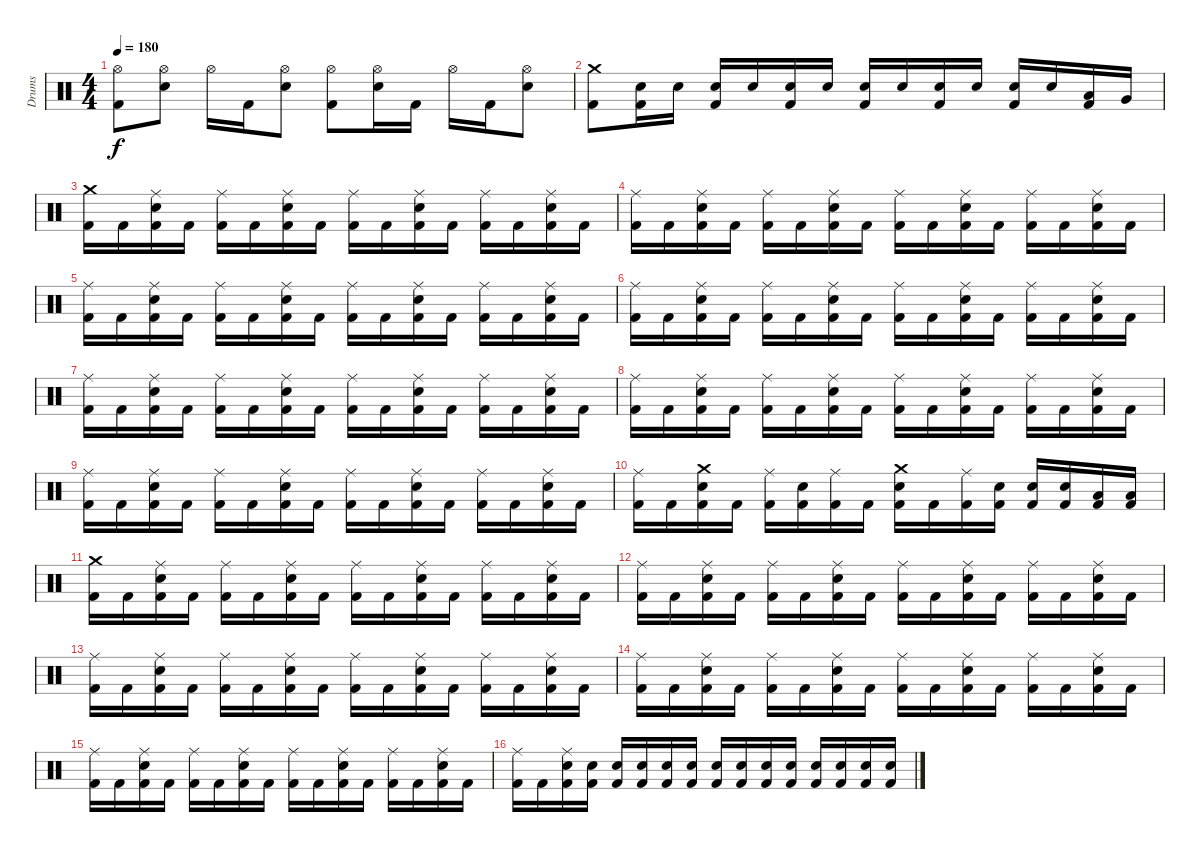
\track ("Drums" "Drums") {instrument percussion}
\staff {score}
\articulation defaults
\ts (4 4)
\tempo 180
\clef neutral
\ks c
("Hi-Hat (open)" "Kick (hit) 2").8{dy f} ("Hi-Hat (open)" "Snare (hit) 2").8 "Hi-Hat (open)".16 "Kick (hit) 2".16 ("Hi-Hat (open)" "Snare (hit) 2").8 ("Hi-Hat (open)" "Kick (hit) 2").8 ("Hi-Hat (open)" "Snare (hit) 2").16 "Kick (hit) 2".16 "Hi-Hat (open)".16 "Kick (hit) 2".16 ("Hi-Hat (open)" "Snare (hit) 2").8 |
("Crash medium (hit)" "Kick (hit) 2").8 ("Snare (hit) 2" "Kick (hit) 2").16 "Snare (hit) 2".16 ("Snare (hit) 2" "Kick (hit) 2").16 "Snare (hit) 2".16 ("Snare (hit) 2" "Kick (hit) 2").16 "Snare (hit) 2".16 ("Snare (hit) 2" "Kick (hit) 2").16 "Snare (hit) 2".16 ("Snare (hit) 2" "Kick (hit) 2").16 "Snare (hit) 2".16 ("Snare (hit) 2" "Kick (hit) 2").16 "Snare (hit) 2".16 ("Low Tom (hit)" "Kick (hit) 2").16 "Very Low Tom (hit)".16 |
("Crash medium (hit)" "Kick (hit) 2").16 "Kick (hit) 2".16 ("Ride (middle)" "Snare (hit) 2" "Kick (hit) 2").16 "Kick (hit) 2".16 ("Ride (middle)" "Kick (hit) 2").16 "Kick (hit) 2".16 ("Ride (middle)" "Snare (hit) 2" "Kick (hit) 2").16 "Kick (hit) 2".16 ("Ride (middle)" "Kick (hit) 2").16 "Kick (hit) 2".16 ("Ride (middle)" "Snare (hit) 2" "Kick (hit) 2").16 "Kick (hit) 2".16 ("Ride (middle)" "Kick (hit) 2").16 "Kick (hit) 2".16 ("Ride (middle)" "Snare (hit) 2" "Kick (hit) 2").16 "Kick (hit) 2".16 |
("Ride (middle)" "Kick (hit) 2").16 "Kick (hit) 2".16 ("Ride (middle)" "Snare (hit) 2" "Kick (hit) 2").16 "Kick (hit) 2".16 ("Ride (middle)" "Kick (hit) 2").16 "Kick (hit) 2".16 ("Ride (middle)" "Snare (hit) 2" "Kick (hit) 2").16 "Kick (hit) 2".16 ("Ride (middle)" "Kick (hit) 2").16 "Kick (hit) 2".16 ("Ride (middle)" "Snare (hit) 2" "Kick (hit) 2").16 "Kick (hit) 2".16 ("Ride (middle)" "Kick (hit) 2").16 "Kick (hit) 2".16 ("Ride (middle)" "Snare (hit) 2" "Kick (hit) 2").16 "Kick (hit) 2".16 |
("Ride (middle)" "Kick (hit) 2").16 "Kick (hit) 2".16 ("Ride (middle)" "Snare (hit) 2" "Kick (hit) 2").16 "Kick (hit) 2".16 ("Ride (middle)" "Kick (hit) 2").16 "Kick (hit) 2".16 ("Ride (middle)" "Snare (hit) 2" "Kick (hit) 2").16 "Kick (hit) 2".16 ("Ride (middle)" "Kick (hit) 2").16 "Kick (hit) 2".16 ("Ride (middle)" "Snare (hit) 2" "Kick (hit) 2").16 "Kick (hit) 2".16 ("Ride (middle)" "Kick (hit) 2").16 "Kick (hit) 2".16 ("Ride (middle)" "Snare (hit) 2" "Kick (hit) 2").16 "Kick (hit) 2".16 |
("Ride (middle)" "Kick (hit) 2").16 "Kick (hit) 2".16 ("Ride (middle)" "Snare (hit) 2" "Kick (hit) 2").16 "Kick (hit) 2".16 ("Ride (middle)" "Kick (hit) 2").16 "Kick (hit) 2".16 ("Ride (middle)" "Snare (hit) 2" "Kick (hit) 2").16 "Kick (hit) 2".16 ("Ride (middle)" "Kick (hit) 2").16 "Kick (hit) 2".16 ("Ride (middle)" "Snare (hit) 2" "Kick (hit) 2").16 "Kick (hit) 2".16 ("Ride (middle)" "Kick (hit) 2").16 "Kick (hit) 2".16 ("Ride (middle)" "Snare (hit) 2" "Kick (hit) 2").16 "Kick (hit) 2".16 |
("Ride (middle)" "Kick (hit) 2").16 "Kick (hit) 2".16 ("Ride (middle)" "Snare (hit) 2" "Kick (hit) 2").16 "Kick (hit) 2".16 ("Ride (middle)" "Kick (hit) 2").16 "Kick (hit) 2".16 ("Ride (middle)" "Snare (hit) 2" "Kick (hit) 2").16 "Kick (hit) 2".16 ("Ride (middle)" "Kick (hit) 2").16 "Kick (hit) 2".16 ("Ride (middle)" "Snare (hit) 2" "Kick (hit) 2").16 "Kick (hit) 2".16 ("Ride (middle)" "Kick (hit) 2").16 "Kick (hit) 2".16 ("Ride (middle)" "Snare (hit) 2" "Kick (hit) 2").16 "Kick (hit) 2".16 |
("Ride (middle)" "Kick (hit) 2").16 "Kick (hit) 2".16 ("Ride (middle)" "Snare (hit) 2" "Kick (hit) 2").16 "Kick (hit) 2".16 ("Ride (middle)" "Kick (hit) 2").16 "Kick (hit) 2".16 ("Ride (middle)" "Snare (hit) 2" "Kick (hit) 2").16 "Kick (hit) 2".16 ("Ride (middle)" "Kick (hit) 2").16 "Kick (hit) 2".16 ("Ride (middle)" "Snare (hit) 2" "Kick (hit) 2").16 "Kick (hit) 2".16 ("Ride (middle)" "Kick (hit) 2").16 "Kick (hit) 2".16 ("Ride (middle)" "Snare (hit) 2" "Kick (hit) 2").16 "Kick (hit) 2".16 |
("Ride (middle)" "Kick (hit) 2").16 "Kick (hit) 2".16 ("Ride (middle)" "Snare (hit) 2" "Kick (hit) 2").16 "Kick (hit) 2".16 ("Ride (middle)" "Kick (hit) 2").16 "Kick (hit) 2".16 ("Ride (middle)" "Snare (hit) 2" "Kick (hit) 2").16 "Kick (hit) 2".16 ("Ride (middle)" "Kick (hit) 2").16 "Kick (hit) 2".16 ("Ride (middle)" "Snare (hit) 2" "Kick (hit) 2").16 "Kick (hit) 2".16 ("Ride (middle)" "Kick (hit) 2").16 "Kick (hit) 2".16 ("Ride (middle)" "Snare (hit) 2" "Kick (hit) 2").16 "Kick (hit) 2".16 |
("Ride (middle)" "Kick (hit) 2").16 "Kick (hit) 2".16 ("Crash medium (hit)" "Snare (hit) 2" "Kick (hit) 2").16 "Kick (hit) 2".16 ("Ride (middle)" "Kick (hit) 2").16 ("Snare (hit) 2" "Kick (hit) 2").16 ("Ride (middle)" "Kick (hit) 2").16 "Kick (hit) 2".16 ("Crash medium (hit)" "Snare (hit) 2" "Kick (hit) 2").16 "Kick (hit) 2".16 ("Ride (middle)" "Kick (hit) 2").16 ("Snare (hit) 2" "Kick (hit) 2").16 ("Snare (hit) 2" "Kick (hit) 2").16 ("Snare (hit) 2" "Kick (hit) 2").16 ("Low Tom (hit)" "Kick (hit) 2").16 ("Low Tom (hit)" "Kick (hit) 2").16 |
("Crash medium (hit)" "Kick (hit) 2").16 "Kick (hit) 2".16 ("Ride (middle)" "Snare (hit) 2" "Kick (hit) 2").16 "Kick (hit) 2".16 ("Ride (middle)" "Kick (hit) 2").16 "Kick (hit) 2".16 ("Ride (middle)" "Snare (hit) 2" "Kick (hit) 2").16 "Kick (hit) 2".16 ("Ride (middle)" "Kick (hit) 2").16 "Kick (hit) 2".16 ("Ride (middle)" "Snare (hit) 2" "Kick (hit) 2").16 "Kick (hit) 2".16 ("Ride (middle)" "Kick (hit) 2").16 "Kick (hit) 2".16 ("Ride (middle)" "Snare (hit) 2" "Kick (hit) 2").16 "Kick (hit) 2".16 |
("Ride (middle)" "Kick (hit) 2").16 "Kick (hit) 2".16 ("Ride (middle)" "Snare (hit) 2" "Kick (hit) 2").16 "Kick (hit) 2".16 ("Ride (middle)" "Kick (hit) 2").16 "Kick (hit) 2".16 ("Ride (middle)" "Snare (hit) 2" "Kick (hit) 2").16 "Kick (hit) 2".16 ("Ride (middle)" "Kick (hit) 2").16 "Kick (hit) 2".16 ("Ride (middle)" "Snare (hit) 2" "Kick (hit) 2").16 "Kick (hit) 2".16 ("Ride (middle)" "Kick (hit) 2").16 "Kick (hit) 2".16 ("Ride (middle)" "Snare (hit) 2" "Kick (hit) 2").16 "Kick (hit) 2".16 |
("Ride (middle)" "Kick (hit) 2").16 "Kick (hit) 2".16 ("Ride (middle)" "Snare (hit) 2" "Kick (hit) 2").16 "Kick (hit) 2".16 ("Ride (middle)" "Kick (hit) 2").16 "Kick (hit) 2".16 ("Ride (middle)" "Snare (hit) 2" "Kick (hit) 2").16 "Kick (hit) 2".16 ("Ride (middle)" "Kick (hit) 2").16 "Kick (hit) 2".16 ("Ride (middle)" "Snare (hit) 2" "Kick (hit) 2").16 "Kick (hit) 2".16 ("Ride (middle)" "Kick (hit) 2").16 "Kick (hit) 2".16 ("Ride (middle)" "Snare (hit) 2" "Kick (hit) 2").16 "Kick (hit) 2".16 |
("Ride (middle)" "Kick (hit) 2").16 "Kick (hit) 2".16 ("Ride (middle)" "Snare (hit) 2" "Kick (hit) 2").16 "Kick (hit) 2".16 ("Ride (middle)" "Kick (hit) 2").16 "Kick (hit) 2".16 ("Ride (middle)" "Snare (hit) 2" "Kick (hit) 2").16 "Kick (hit) 2".16 ("Ride (middle)" "Kick (hit) 2").16 "Kick (hit) 2".16 ("Ride (middle)" "Snare (hit) 2" "Kick (hit) 2").16 "Kick (hit) 2".16 ("Ride (middle)" "Kick (hit) 2").16 "Kick (hit) 2".16 ("Ride (middle)" "Snare (hit) 2" "Kick (hit) 2").16 "Kick (hit) 2".16 |
("Ride (middle)" "Kick (hit) 2").16 "Kick (hit) 2".16 ("Ride (middle)" "Snare (hit) 2" "Kick (hit) 2").16 "Kick (hit) 2".16 ("Ride (middle)" "Kick (hit) 2").16 "Kick (hit) 2".16 ("Ride (middle)" "Snare (hit) 2" "Kick (hit) 2").16 "Kick (hit) 2".16 ("Ride (middle)" "Kick (hit) 2").16 "Kick (hit) 2".16 ("Ride (middle)" "Snare (hit) 2" "Kick (hit) 2").16 "Kick (hit) 2".16 ("Ride (middle)" "Kick (hit) 2").16 "Kick (hit) 2".16 ("Ride (middle)" "Snare (hit) 2" "Kick (hit) 2").16 "Kick (hit) 2".16 |
("Ride (middle)" "Kick (hit) 2").16 "Kick (hit) 2".16 ("Ride (middle)" "Snare (hit) 2" "Kick (hit) 2").16 ("Snare (hit) 2" "Kick (hit) 2").16 ("Snare (hit) 2" "Kick (hit) 2").16 ("Snare (hit) 2" "Kick (hit) 2").16 ("Snare (hit) 2" "Kick (hit) 2").16 ("Snare (hit) 2" "Kick (hit) 2").16 ("Snare (hit) 2" "Kick (hit) 2").16 ("Snare (hit) 2" "Kick (hit) 2").16 ("Snare (hit) 2" "Kick (hit) 2").16 ("Snare (hit) 2" "Kick (hit) 2").16 ("Snare (hit) 2" "Kick (hit) 2").16 ("Snare (hit) 2" "Kick (hit) 2").16 ("Snare (hit) 2" "Kick (hit) 2").16 ("Snare (hit) 2" "Kick (hit) 2").16
